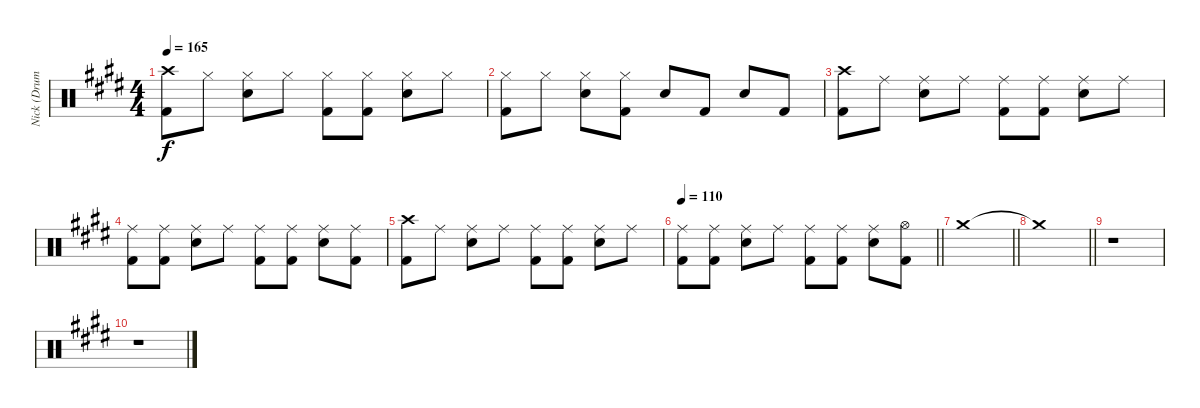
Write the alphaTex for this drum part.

\track ("Nick (Drums)" "Nick (Drum") {instrument percussion}
\staff {score}
\articulation defaults
\ts (4 4)
\tempo 165
\clef neutral
\ks e
("Crash high (hit)" "Kick (hit) 2").8{dy f} "Hi-Hat (closed)".8 ("Hi-Hat (closed)" "Snare (hit) 2").8 "Hi-Hat (closed)".8 ("Hi-Hat (closed)" "Kick (hit) 2").8 ("Hi-Hat (closed)" "Kick (hit) 2").8 ("Hi-Hat (closed)" "Snare (hit) 2").8 "Hi-Hat (closed)".8 |
("Kick (hit) 2" "Hi-Hat (closed)").8 "Hi-Hat (closed)".8 ("Hi-Hat (closed)" "Snare (hit) 2").8 ("Hi-Hat (closed)" "Kick (hit) 2").8 "Snare (hit) 2".8 "Kick (hit) 2".8 "Snare (hit) 2".8 "Kick (hit) 2".8 |
("Kick (hit) 2" "Crash high (hit)").8 "Ride (middle)".8 ("Ride (middle)" "Snare (hit) 2").8 "Ride (middle)".8 ("Ride (middle)" "Kick (hit) 2").8 ("Ride (middle)" "Kick (hit) 2").8 ("Ride (middle)" "Snare (hit) 2").8 "Ride (middle)".8 |
("Kick (hit) 2" "Ride (middle)").8 ("Ride (middle)" "Kick (hit) 2").8 ("Ride (middle)" "Snare (hit) 2").8 "Ride (middle)".8 ("Ride (middle)" "Kick (hit) 2").8 ("Ride (middle)" "Kick (hit) 2").8 ("Ride (middle)" "Snare (hit) 2").8 ("Ride (middle)" "Kick (hit) 2").8 |
("Crash high (hit)" "Kick (hit) 2").8 "Ride (middle)".8 ("Ride (middle)" "Snare (hit) 2").8 "Ride (middle)".8 ("Ride (middle)" "Kick (hit) 2").8 ("Ride (middle)" "Kick (hit) 2").8 ("Ride (middle)" "Snare (hit) 2").8 "Ride (middle)".8 |
\tempo 110
\barLineRight lightlight
("Kick (hit) 2" "Ride (middle)").8 ("Ride (middle)" "Kick (hit) 2").8 ("Ride (middle)" "Snare (hit) 2").8 "Ride (middle)".8 ("Ride (middle)" "Kick (hit) 2").8 ("Ride (middle)" "Kick (hit) 2").8 ("Ride (middle)" "Snare (hit) 2").8 ("Hi-Hat (open)" "Kick (hit) 2").8 |
\barLineRight lightlight "Crash medium (hit)".1
|
\barLineRight lightlight "Crash medium (hit)"{t}.1
|
r.1 |
r.1
